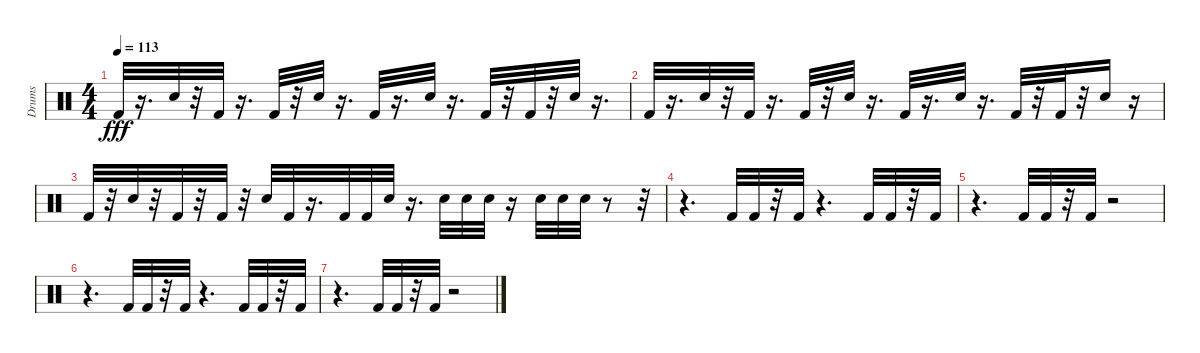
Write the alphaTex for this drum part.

\track ("Drums" "Drums") {instrument percussion}
\staff {score}
\articulation defaults
\ts (4 4)
\tempo 113
\clef neutral
\ks c "Kick (hit) 2".32{dy fff}
r.16{d} "Electric Snare (hit)".32 r.32 "Kick (hit) 2".32 r.16{d} "Kick (hit) 2".32 r.32 "Electric Snare (hit)".32 r.16{d} "Kick (hit) 2".32 r.16{d} "Electric Snare (hit)".32 r.16{d} "Kick (hit) 2".32 r.32 "Kick (hit) 2".32 r.32 "Electric Snare (hit)".32 r.16{d} |
"Kick (hit) 2".32 r.16{d} "Electric Snare (hit)".32 r.32 "Kick (hit) 2".32 r.16{d} "Kick (hit) 2".32 r.32 "Electric Snare (hit)".32 r.16{d} "Kick (hit) 2".32 r.16{d} "Electric Snare (hit)".32 r.16{d} "Kick (hit) 2".32 r.32 "Kick (hit) 2".32 r.32 "Electric Snare (hit)".16 r.16 |
"Kick (hit) 2".32 r.32 "Electric Snare (hit)".32 r.32 "Kick (hit) 2".32 r.32 "Kick (hit) 2".32 r.32 "Electric Snare (hit)".32 "Kick (hit) 2".32 r.16{d} "Kick (hit) 2".32 "Kick (hit) 2".32 "Electric Snare (hit)".32 r.16{d} "Electric Snare (hit)".32{balance 0} "Electric Snare (hit)".32 "Electric Snare (hit)".32 r.16 "Electric Snare (hit)".32{balance 16} "Electric Snare (hit)".32 "Electric Snare (hit)".32 r.8 r.32 |
r.4{d} "Kick (hit) 2".32{balance 8} "Kick (hit) 2".32 r.32 "Kick (hit) 2".32 r.4{d} "Kick (hit) 2".32 "Kick (hit) 2".32 r.32 "Kick (hit) 2".32 |
r.4{d} "Kick (hit) 2".32 "Kick (hit) 2".32 r.32 "Kick (hit) 2".32 r.2 |
r.4{d} "Kick (hit) 2".32 "Kick (hit) 2".32 r.32 "Kick (hit) 2".32 r.4{d} "Kick (hit) 2".32 "Kick (hit) 2".32 r.32 "Kick (hit) 2".32 |
r.4{d} "Kick (hit) 2".32 "Kick (hit) 2".32 r.32 "Kick (hit) 2".32 r.2
